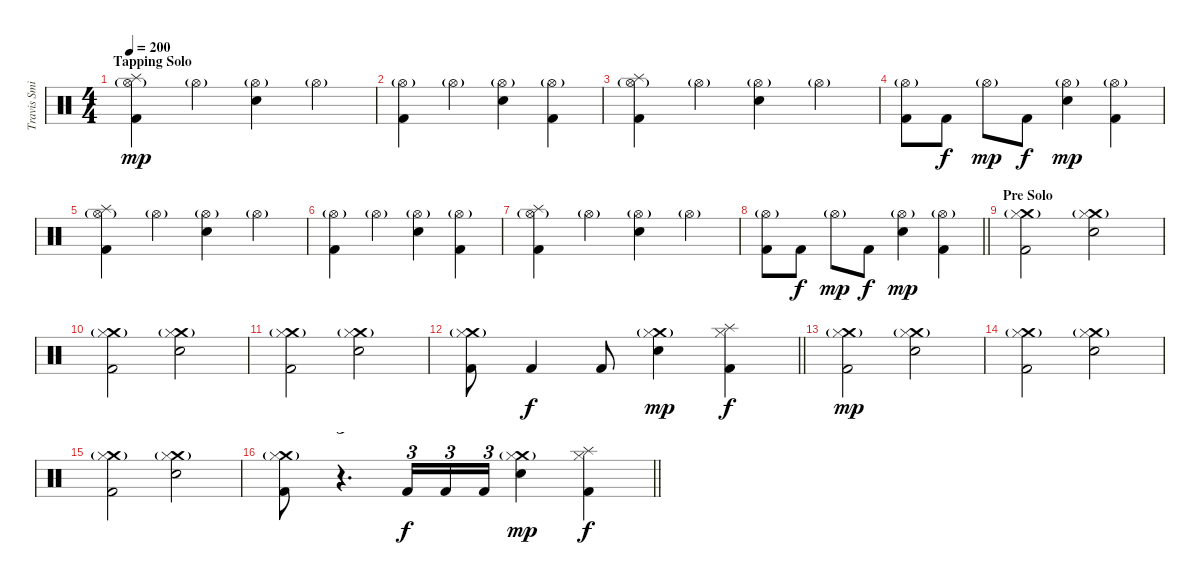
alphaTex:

\track ("Travis Smith" "Travis Smi") {instrument percussion}
\staff {score}
\articulation defaults
\ts (4 4)
\section ("" "Tapping Solo")
\tempo 200
\clef neutral
\ks c
("Hi-Hat (open)"{g} "Splash (hit)" "Kick (hit) 2").4{dy mp} "Hi-Hat (open)"{g}.4 ("Hi-Hat (open)"{g} "Electric Snare (hit)").4 "Hi-Hat (open)"{g}.4 |
("Hi-Hat (open)"{g} "Kick (hit) 2").4 "Hi-Hat (open)"{g}.4 ("Hi-Hat (open)"{g} "Electric Snare (hit)").4 ("Hi-Hat (open)"{g} "Kick (hit) 2").4 |
("Hi-Hat (open)"{g} "Splash (hit)" "Kick (hit) 2").4 "Hi-Hat (open)"{g}.4 ("Hi-Hat (open)"{g} "Electric Snare (hit)").4 "Hi-Hat (open)"{g}.4 |
("Hi-Hat (open)"{g} "Kick (hit) 2").8 "Kick (hit) 2".8{dy f} "Hi-Hat (open)"{g}.8{dy mp} "Kick (hit) 2".8{dy f} ("Hi-Hat (open)"{g} "Electric Snare (hit)").4{dy mp} ("Hi-Hat (open)"{g} "Kick (hit) 2").4 |
("Hi-Hat (open)"{g} "Splash (hit)" "Kick (hit) 2").4 "Hi-Hat (open)"{g}.4 ("Hi-Hat (open)"{g} "Electric Snare (hit)").4 "Hi-Hat (open)"{g}.4 |
("Hi-Hat (open)"{g} "Kick (hit) 2").4 "Hi-Hat (open)"{g}.4 ("Hi-Hat (open)"{g} "Electric Snare (hit)").4 ("Hi-Hat (open)"{g} "Kick (hit) 2").4 |
("Hi-Hat (open)"{g} "Splash (hit)" "Kick (hit) 2").4 "Hi-Hat (open)"{g}.4 ("Hi-Hat (open)"{g} "Electric Snare (hit)").4 "Hi-Hat (open)"{g}.4 |
\barLineRight lightlight
("Hi-Hat (open)"{g} "Kick (hit) 2").8 "Kick (hit) 2".8{dy f} "Hi-Hat (open)"{g}.8{dy mp} "Kick (hit) 2".8{dy f} ("Hi-Hat (open)"{g} "Electric Snare (hit)").4{dy mp} ("Hi-Hat (open)"{g} "Kick (hit) 2").4 |
\section ("" "Pre Solo")
("Crash medium (hit)"{g} "Hi-Hat (closed)" "Kick (hit) 2").2 ("Crash medium (hit)"{g} "Hi-Hat (closed)" "Electric Snare (hit)").2 |
("Crash medium (hit)"{g} "Hi-Hat (closed)" "Kick (hit) 2").2 ("Crash medium (hit)"{g} "Hi-Hat (closed)" "Electric Snare (hit)").2 |
("Crash medium (hit)"{g} "Hi-Hat (closed)" "Kick (hit) 2").2 ("Crash medium (hit)"{g} "Hi-Hat (closed)" "Electric Snare (hit)").2 |
\barLineRight lightlight
("Crash medium (hit)"{g} "Hi-Hat (closed)" "Kick (hit) 2").8 "Kick (hit) 2".4{dy f} "Kick (hit) 2".8 ("Crash medium (hit)"{g} "Hi-Hat (closed)" "Electric Snare (hit)").4{dy mp} ("Splash (hit)" "Hi-Hat (closed)" "Kick (hit) 2").4{dy f} |
("Crash medium (hit)"{g} "Hi-Hat (closed)" "Kick (hit) 2").2{dy mp} ("Crash medium (hit)"{g} "Hi-Hat (closed)" "Electric Snare (hit)").2 |
("Crash medium (hit)"{g} "Hi-Hat (closed)" "Kick (hit) 2").2 ("Crash medium (hit)"{g} "Hi-Hat (closed)" "Electric Snare (hit)").2 |
("Crash medium (hit)"{g} "Hi-Hat (closed)" "Kick (hit) 2").2 ("Crash medium (hit)"{g} "Hi-Hat (closed)" "Electric Snare (hit)").2 |
\barLineRight lightlight
("Crash medium (hit)"{g} "Hi-Hat (closed)" "Kick (hit) 2").8 r.4{d tu (3 2)} "Kick (hit) 2".16{tu (3 2) dy f} "Kick (hit) 2".16{tu (3 2)} "Kick (hit) 2".16{tu (3 2)} ("Crash medium (hit)"{g} "Hi-Hat (closed)" "Electric Snare (hit)").4{dy mp} ("Splash (hit)" "Hi-Hat (closed)" "Kick (hit) 2").4{dy f}
